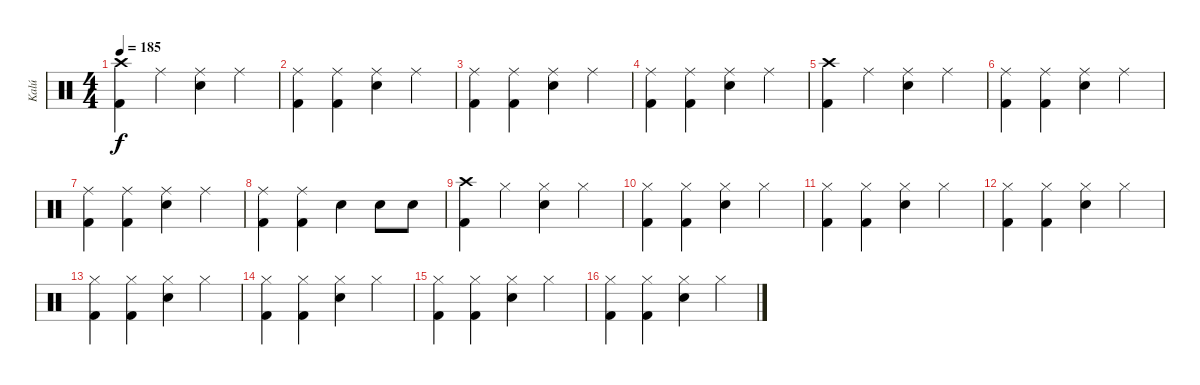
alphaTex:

\track ("Kalú" "Kalú") {instrument percussion}
\staff {score}
\articulation defaults
\ts (4 4)
\tempo 185
\clef neutral
\ks c
("Crash high (hit)" "Kick (hit) 2").4{dy f} "Ride (middle)".4 ("Ride (middle)" "Snare (hit) 2").4 "Ride (middle)".4 |
("Ride (middle)" "Kick (hit) 2").4 ("Ride (middle)" "Kick (hit) 2").4 ("Ride (middle)" "Snare (hit) 2").4 "Ride (middle)".4 |
("Ride (middle)" "Kick (hit) 2").4 ("Ride (middle)" "Kick (hit) 2").4 ("Ride (middle)" "Snare (hit) 2").4 "Ride (middle)".4 |
("Ride (middle)" "Kick (hit) 2").4 ("Ride (middle)" "Kick (hit) 2").4 ("Ride (middle)" "Snare (hit) 2").4 "Ride (middle)".4 |
("Crash high (hit)" "Kick (hit) 2").4 "Ride (middle)".4 ("Ride (middle)" "Snare (hit) 2").4 "Ride (middle)".4 |
("Ride (middle)" "Kick (hit) 2").4 ("Ride (middle)" "Kick (hit) 2").4 ("Ride (middle)" "Snare (hit) 2").4 "Ride (middle)".4 |
("Ride (middle)" "Kick (hit) 2").4 ("Ride (middle)" "Kick (hit) 2").4 ("Ride (middle)" "Snare (hit) 2").4 "Ride (middle)".4 |
("Ride (middle)" "Kick (hit) 2").4 ("Ride (middle)" "Kick (hit) 2").4 "Snare (hit) 2".4 "Snare (hit) 2".8 "Snare (hit) 2".8 |
("Crash high (hit)" "Kick (hit) 2").4 "Hi-Hat (closed)".4 ("Hi-Hat (closed)" "Snare (hit) 2").4 "Hi-Hat (closed)".4 |
("Hi-Hat (closed)" "Kick (hit) 2").4 ("Hi-Hat (closed)" "Kick (hit) 2").4 ("Hi-Hat (closed)" "Snare (hit) 2").4 "Hi-Hat (closed)".4 |
("Hi-Hat (closed)" "Kick (hit) 2").4 ("Hi-Hat (closed)" "Kick (hit) 2").4 ("Hi-Hat (closed)" "Snare (hit) 2").4 "Hi-Hat (closed)".4 |
("Hi-Hat (closed)" "Kick (hit) 2").4 ("Hi-Hat (closed)" "Kick (hit) 2").4 ("Hi-Hat (closed)" "Snare (hit) 2").4 "Hi-Hat (closed)".4 |
("Hi-Hat (closed)" "Kick (hit) 2").4 ("Hi-Hat (closed)" "Kick (hit) 2").4 ("Hi-Hat (closed)" "Snare (hit) 2").4 "Hi-Hat (closed)".4 |
("Hi-Hat (closed)" "Kick (hit) 2").4 ("Hi-Hat (closed)" "Kick (hit) 2").4 ("Hi-Hat (closed)" "Snare (hit) 2").4 "Hi-Hat (closed)".4 |
("Hi-Hat (closed)" "Kick (hit) 2").4 ("Hi-Hat (closed)" "Kick (hit) 2").4 ("Hi-Hat (closed)" "Snare (hit) 2").4 "Hi-Hat (closed)".4 |
("Hi-Hat (closed)" "Kick (hit) 2").4 ("Hi-Hat (closed)" "Kick (hit) 2").4 ("Hi-Hat (closed)" "Snare (hit) 2").4 "Hi-Hat (closed)".4
